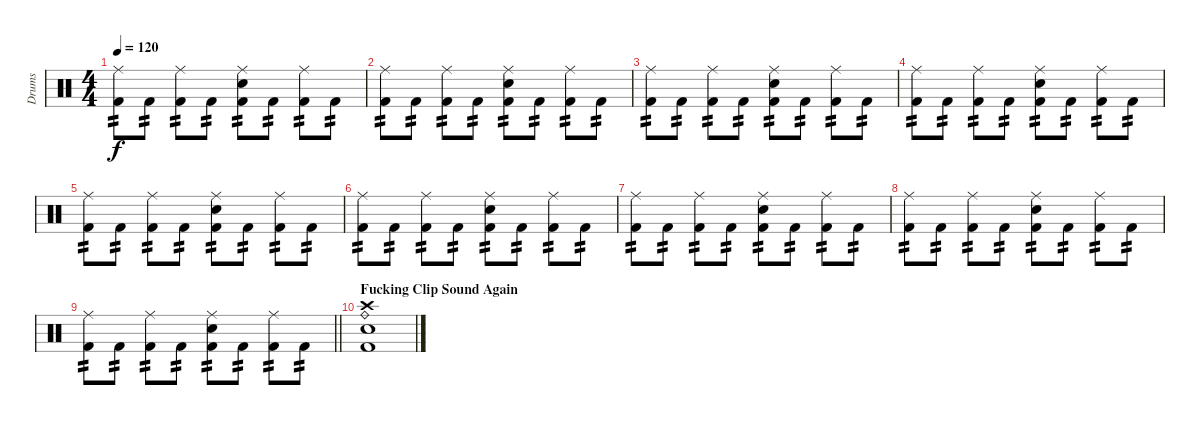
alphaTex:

\track ("Drums " "Drums ") {instrument percussion}
\staff {score}
\articulation defaults
\ts (4 4)
\tempo 120
\clef neutral
\ks c
("Ride (middle)" "Kick (hit) 2").8{tp 2 dy f} "Kick (hit) 2".8{tp 2} ("Ride (middle)" "Kick (hit) 2").8{tp 2} "Kick (hit) 2".8{tp 2} ("Snare (hit) 2" "Ride (middle)" "Kick (hit) 2").8{tp 2} "Kick (hit) 2".8{tp 2} ("Ride (middle)" "Kick (hit) 2").8{tp 2} "Kick (hit) 2".8{tp 2} |
("Ride (middle)" "Kick (hit) 2").8{tp 2} "Kick (hit) 2".8{tp 2} ("Ride (middle)" "Kick (hit) 2").8{tp 2} "Kick (hit) 2".8{tp 2} ("Snare (hit) 2" "Ride (middle)" "Kick (hit) 2").8{tp 2} "Kick (hit) 2".8{tp 2} ("Ride (middle)" "Kick (hit) 2").8{tp 2} "Kick (hit) 2".8{tp 2} |
("Ride (middle)" "Kick (hit) 2").8{tp 2} "Kick (hit) 2".8{tp 2} ("Ride (middle)" "Kick (hit) 2").8{tp 2} "Kick (hit) 2".8{tp 2} ("Snare (hit) 2" "Ride (middle)" "Kick (hit) 2").8{tp 2} "Kick (hit) 2".8{tp 2} ("Ride (middle)" "Kick (hit) 2").8{tp 2} "Kick (hit) 2".8{tp 2} |
("Ride (middle)" "Kick (hit) 2").8{tp 2} "Kick (hit) 2".8{tp 2} ("Ride (middle)" "Kick (hit) 2").8{tp 2} "Kick (hit) 2".8{tp 2} ("Snare (hit) 2" "Ride (middle)" "Kick (hit) 2").8{tp 2} "Kick (hit) 2".8{tp 2} ("Ride (middle)" "Kick (hit) 2").8{tp 2} "Kick (hit) 2".8{tp 2} |
("Ride (middle)" "Kick (hit) 2").8{tp 2} "Kick (hit) 2".8{tp 2} ("Ride (middle)" "Kick (hit) 2").8{tp 2} "Kick (hit) 2".8{tp 2} ("Snare (hit) 2" "Ride (middle)" "Kick (hit) 2").8{tp 2} "Kick (hit) 2".8{tp 2} ("Ride (middle)" "Kick (hit) 2").8{tp 2} "Kick (hit) 2".8{tp 2} |
("Ride (middle)" "Kick (hit) 2").8{tp 2} "Kick (hit) 2".8{tp 2} ("Ride (middle)" "Kick (hit) 2").8{tp 2} "Kick (hit) 2".8{tp 2} ("Snare (hit) 2" "Ride (middle)" "Kick (hit) 2").8{tp 2} "Kick (hit) 2".8{tp 2} ("Ride (middle)" "Kick (hit) 2").8{tp 2} "Kick (hit) 2".8{tp 2} |
("Ride (middle)" "Kick (hit) 2").8{tp 2} "Kick (hit) 2".8{tp 2} ("Ride (middle)" "Kick (hit) 2").8{tp 2} "Kick (hit) 2".8{tp 2} ("Snare (hit) 2" "Ride (middle)" "Kick (hit) 2").8{tp 2} "Kick (hit) 2".8{tp 2} ("Ride (middle)" "Kick (hit) 2").8{tp 2} "Kick (hit) 2".8{tp 2} |
("Ride (middle)" "Kick (hit) 2").8{tp 2} "Kick (hit) 2".8{tp 2} ("Ride (middle)" "Kick (hit) 2").8{tp 2} "Kick (hit) 2".8{tp 2} ("Snare (hit) 2" "Ride (middle)" "Kick (hit) 2").8{tp 2} "Kick (hit) 2".8{tp 2} ("Ride (middle)" "Kick (hit) 2").8{tp 2} "Kick (hit) 2".8{tp 2} |
\barLineRight lightlight
("Ride (middle)" "Kick (hit) 2").8{tp 2} "Kick (hit) 2".8{tp 2} ("Ride (middle)" "Kick (hit) 2").8{tp 2} "Kick (hit) 2".8{tp 2} ("Snare (hit) 2" "Ride (middle)" "Kick (hit) 2").8{tp 2} "Kick (hit) 2".8{tp 2} ("Ride (middle)" "Kick (hit) 2").8{tp 2} "Kick (hit) 2".8{tp 2} |
\section ("" "Fucking Clip Sound Again")
("Crash high (hit)" "Ride (bell)" "Snare (hit) 2" "Kick (hit) 2").1
